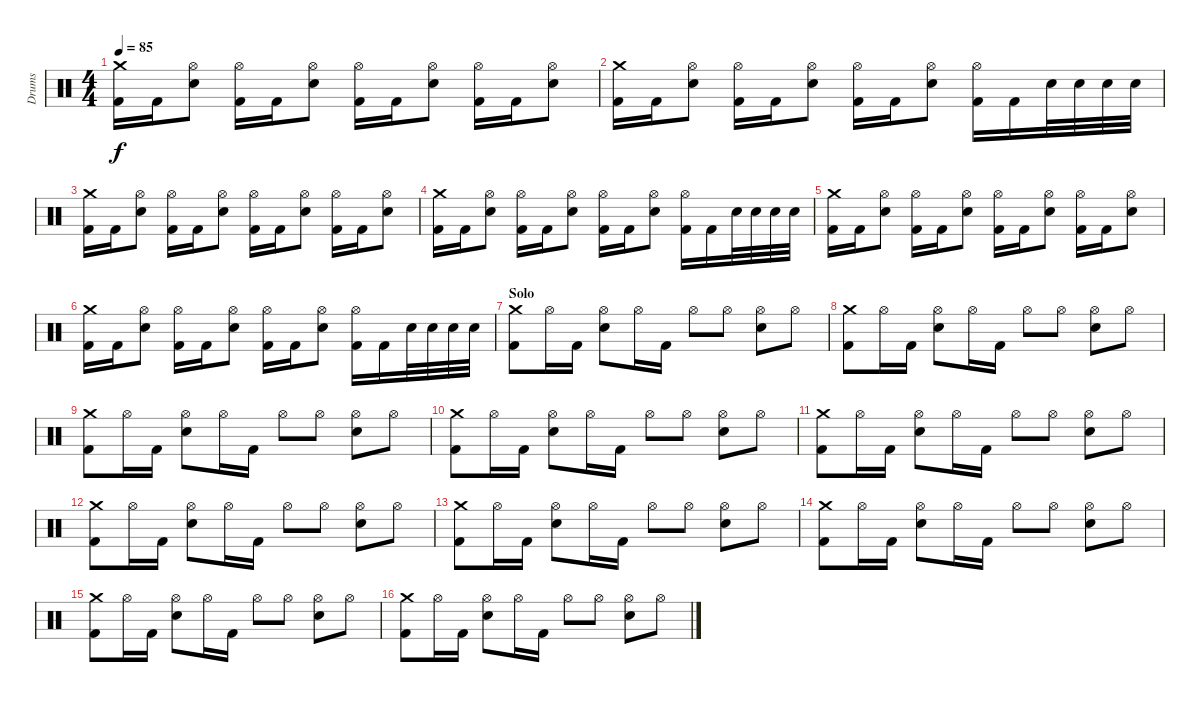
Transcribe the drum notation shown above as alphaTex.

\track ("Drums" "Drums") {instrument percussion}
\staff {score}
\articulation defaults
\ts (4 4)
\tempo 85
\clef neutral
\ks c
("Crash medium (hit)" "Kick (hit) 2").16{dy f} "Kick (hit) 2".16 ("Hi-Hat (open)" "Electric Snare (hit)").8 ("Hi-Hat (open)" "Kick (hit) 2").16 "Kick (hit) 2".16 ("Hi-Hat (open)" "Electric Snare (hit)").8 ("Hi-Hat (open)" "Kick (hit) 2").16 "Kick (hit) 2".16 ("Hi-Hat (open)" "Electric Snare (hit)").8 ("Hi-Hat (open)" "Kick (hit) 2").16 "Kick (hit) 2".16 ("Hi-Hat (open)" "Electric Snare (hit)").8 |
("Crash medium (hit)" "Kick (hit) 2").16 "Kick (hit) 2".16 ("Hi-Hat (open)" "Electric Snare (hit)").8 ("Hi-Hat (open)" "Kick (hit) 2").16 "Kick (hit) 2".16 ("Hi-Hat (open)" "Electric Snare (hit)").8 ("Hi-Hat (open)" "Kick (hit) 2").16 "Kick (hit) 2".16 ("Hi-Hat (open)" "Electric Snare (hit)").8 ("Hi-Hat (open)" "Kick (hit) 2").16 "Kick (hit) 2".16 "Electric Snare (hit)".32 "Electric Snare (hit)".32 "Electric Snare (hit)".32 "Electric Snare (hit)".32 |
("Crash medium (hit)" "Kick (hit) 2").16 "Kick (hit) 2".16 ("Hi-Hat (open)" "Electric Snare (hit)").8 ("Hi-Hat (open)" "Kick (hit) 2").16 "Kick (hit) 2".16 ("Hi-Hat (open)" "Electric Snare (hit)").8 ("Hi-Hat (open)" "Kick (hit) 2").16 "Kick (hit) 2".16 ("Hi-Hat (open)" "Electric Snare (hit)").8 ("Hi-Hat (open)" "Kick (hit) 2").16 "Kick (hit) 2".16 ("Hi-Hat (open)" "Electric Snare (hit)").8 |
("Crash medium (hit)" "Kick (hit) 2").16 "Kick (hit) 2".16 ("Hi-Hat (open)" "Electric Snare (hit)").8 ("Hi-Hat (open)" "Kick (hit) 2").16 "Kick (hit) 2".16 ("Hi-Hat (open)" "Electric Snare (hit)").8 ("Hi-Hat (open)" "Kick (hit) 2").16 "Kick (hit) 2".16 ("Hi-Hat (open)" "Electric Snare (hit)").8 ("Hi-Hat (open)" "Kick (hit) 2").16 "Kick (hit) 2".16 "Electric Snare (hit)".32 "Electric Snare (hit)".32 "Electric Snare (hit)".32 "Electric Snare (hit)".32 |
("Crash medium (hit)" "Kick (hit) 2").16 "Kick (hit) 2".16 ("Hi-Hat (open)" "Electric Snare (hit)").8 ("Hi-Hat (open)" "Kick (hit) 2").16 "Kick (hit) 2".16 ("Hi-Hat (open)" "Electric Snare (hit)").8 ("Hi-Hat (open)" "Kick (hit) 2").16 "Kick (hit) 2".16 ("Hi-Hat (open)" "Electric Snare (hit)").8 ("Hi-Hat (open)" "Kick (hit) 2").16 "Kick (hit) 2".16 ("Hi-Hat (open)" "Electric Snare (hit)").8 |
("Crash medium (hit)" "Kick (hit) 2").16 "Kick (hit) 2".16 ("Hi-Hat (open)" "Electric Snare (hit)").8 ("Hi-Hat (open)" "Kick (hit) 2").16 "Kick (hit) 2".16 ("Hi-Hat (open)" "Electric Snare (hit)").8 ("Hi-Hat (open)" "Kick (hit) 2").16 "Kick (hit) 2".16 ("Hi-Hat (open)" "Electric Snare (hit)").8 ("Hi-Hat (open)" "Kick (hit) 2").16 "Kick (hit) 2".16 "Electric Snare (hit)".32 "Electric Snare (hit)".32 "Electric Snare (hit)".32 "Electric Snare (hit)".32 |
\section ("" "Solo")
("Crash medium (hit)" "Kick (hit) 2").8 "Hi-Hat (open)".16 "Kick (hit) 2".16 ("Hi-Hat (open)" "Electric Snare (hit)").8 "Hi-Hat (open)".16 "Kick (hit) 2".16 "Hi-Hat (open)".8 "Hi-Hat (open)".8 ("Hi-Hat (open)" "Electric Snare (hit)").8 "Hi-Hat (open)".8 |
("Crash medium (hit)" "Kick (hit) 2").8 "Hi-Hat (open)".16 "Kick (hit) 2".16 ("Hi-Hat (open)" "Electric Snare (hit)").8 "Hi-Hat (open)".16 "Kick (hit) 2".16 "Hi-Hat (open)".8 "Hi-Hat (open)".8 ("Hi-Hat (open)" "Electric Snare (hit)").8 "Hi-Hat (open)".8 |
("Crash medium (hit)" "Kick (hit) 2").8 "Hi-Hat (open)".16 "Kick (hit) 2".16 ("Hi-Hat (open)" "Electric Snare (hit)").8 "Hi-Hat (open)".16 "Kick (hit) 2".16 "Hi-Hat (open)".8 "Hi-Hat (open)".8 ("Hi-Hat (open)" "Electric Snare (hit)").8 "Hi-Hat (open)".8 |
("Crash medium (hit)" "Kick (hit) 2").8 "Hi-Hat (open)".16 "Kick (hit) 2".16 ("Hi-Hat (open)" "Electric Snare (hit)").8 "Hi-Hat (open)".16 "Kick (hit) 2".16 "Hi-Hat (open)".8 "Hi-Hat (open)".8 ("Hi-Hat (open)" "Electric Snare (hit)").8 "Hi-Hat (open)".8 |
("Crash medium (hit)" "Kick (hit) 2").8 "Hi-Hat (open)".16 "Kick (hit) 2".16 ("Hi-Hat (open)" "Electric Snare (hit)").8 "Hi-Hat (open)".16 "Kick (hit) 2".16 "Hi-Hat (open)".8 "Hi-Hat (open)".8 ("Hi-Hat (open)" "Electric Snare (hit)").8 "Hi-Hat (open)".8 |
("Crash medium (hit)" "Kick (hit) 2").8 "Hi-Hat (open)".16 "Kick (hit) 2".16 ("Hi-Hat (open)" "Electric Snare (hit)").8 "Hi-Hat (open)".16 "Kick (hit) 2".16 "Hi-Hat (open)".8 "Hi-Hat (open)".8 ("Hi-Hat (open)" "Electric Snare (hit)").8 "Hi-Hat (open)".8 |
("Crash medium (hit)" "Kick (hit) 2").8 "Hi-Hat (open)".16 "Kick (hit) 2".16 ("Hi-Hat (open)" "Electric Snare (hit)").8 "Hi-Hat (open)".16 "Kick (hit) 2".16 "Hi-Hat (open)".8 "Hi-Hat (open)".8 ("Hi-Hat (open)" "Electric Snare (hit)").8 "Hi-Hat (open)".8 |
("Crash medium (hit)" "Kick (hit) 2").8 "Hi-Hat (open)".16 "Kick (hit) 2".16 ("Hi-Hat (open)" "Electric Snare (hit)").8 "Hi-Hat (open)".16 "Kick (hit) 2".16 "Hi-Hat (open)".8 "Hi-Hat (open)".8 ("Hi-Hat (open)" "Electric Snare (hit)").8 "Hi-Hat (open)".8 |
("Crash medium (hit)" "Kick (hit) 2").8 "Hi-Hat (open)".16 "Kick (hit) 2".16 ("Hi-Hat (open)" "Electric Snare (hit)").8 "Hi-Hat (open)".16 "Kick (hit) 2".16 "Hi-Hat (open)".8 "Hi-Hat (open)".8 ("Hi-Hat (open)" "Electric Snare (hit)").8 "Hi-Hat (open)".8 |
("Crash medium (hit)" "Kick (hit) 2").8 "Hi-Hat (open)".16 "Kick (hit) 2".16 ("Hi-Hat (open)" "Electric Snare (hit)").8 "Hi-Hat (open)".16 "Kick (hit) 2".16 "Hi-Hat (open)".8 "Hi-Hat (open)".8 ("Hi-Hat (open)" "Electric Snare (hit)").8 "Hi-Hat (open)".8
